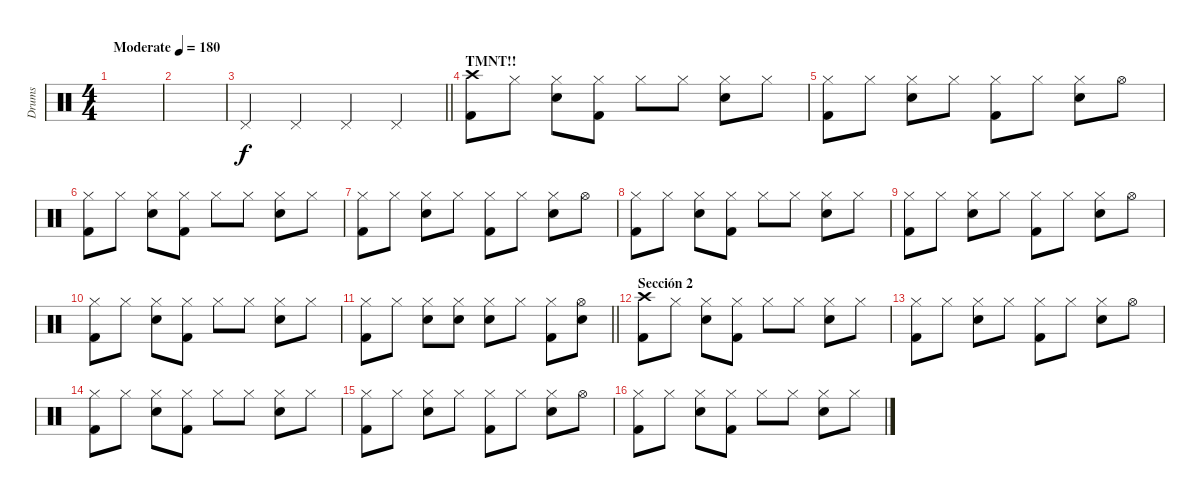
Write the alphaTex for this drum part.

\track ("Drums" "Drums") {instrument percussion}
\staff {score}
\articulation defaults
\ts (4 4)
\tempo (180 "Moderate")
\clef neutral
\ks c
|
|
\barLineRight lightlight "Pedal Hi-Hat (hit)".4 "Pedal Hi-Hat (hit)".4 "Pedal Hi-Hat (hit)".4 "Pedal Hi-Hat (hit)".4
|
\section ("" "TMNT!!")
("Crash high (hit)" "Kick (hit) 2").8 "Hi-Hat (closed)".8 ("Hi-Hat (closed)" "Snare (hit) 2").8 ("Hi-Hat (closed)" "Kick (hit) 2").8 "Hi-Hat (closed)".8 "Hi-Hat (closed)".8 ("Hi-Hat (closed)" "Snare (hit) 2").8 "Hi-Hat (closed)".8 |
("Hi-Hat (closed)" "Kick (hit) 2").8 "Hi-Hat (closed)".8 ("Hi-Hat (closed)" "Snare (hit) 2").8 "Hi-Hat (closed)".8 ("Hi-Hat (closed)" "Kick (hit) 2").8 "Hi-Hat (closed)".8 ("Hi-Hat (closed)" "Snare (hit) 2").8 "Hi-Hat (open)".8 |
("Hi-Hat (closed)" "Kick (hit) 2").8 "Hi-Hat (closed)".8 ("Hi-Hat (closed)" "Snare (hit) 2").8 ("Hi-Hat (closed)" "Kick (hit) 2").8 "Hi-Hat (closed)".8 "Hi-Hat (closed)".8 ("Hi-Hat (closed)" "Snare (hit) 2").8 "Hi-Hat (closed)".8 |
("Hi-Hat (closed)" "Kick (hit) 2").8 "Hi-Hat (closed)".8 ("Hi-Hat (closed)" "Snare (hit) 2").8 "Hi-Hat (closed)".8 ("Hi-Hat (closed)" "Kick (hit) 2").8 "Hi-Hat (closed)".8 ("Hi-Hat (closed)" "Snare (hit) 2").8 "Hi-Hat (open)".8 |
("Hi-Hat (closed)" "Kick (hit) 2").8 "Hi-Hat (closed)".8 ("Hi-Hat (closed)" "Snare (hit) 2").8 ("Hi-Hat (closed)" "Kick (hit) 2").8 "Hi-Hat (closed)".8 "Hi-Hat (closed)".8 ("Hi-Hat (closed)" "Snare (hit) 2").8 "Hi-Hat (closed)".8 |
("Hi-Hat (closed)" "Kick (hit) 2").8 "Hi-Hat (closed)".8 ("Hi-Hat (closed)" "Snare (hit) 2").8 "Hi-Hat (closed)".8 ("Hi-Hat (closed)" "Kick (hit) 2").8 "Hi-Hat (closed)".8 ("Hi-Hat (closed)" "Snare (hit) 2").8 "Hi-Hat (open)".8 |
("Hi-Hat (closed)" "Kick (hit) 2").8 "Hi-Hat (closed)".8 ("Hi-Hat (closed)" "Snare (hit) 2").8 ("Hi-Hat (closed)" "Kick (hit) 2").8 "Hi-Hat (closed)".8 "Hi-Hat (closed)".8 ("Hi-Hat (closed)" "Snare (hit) 2").8 "Hi-Hat (closed)".8 |
\barLineRight lightlight
("Hi-Hat (closed)" "Kick (hit) 2").8 "Hi-Hat (closed)".8 ("Hi-Hat (closed)" "Snare (hit) 2").8 ("Hi-Hat (closed)" "Snare (hit) 2").8 ("Hi-Hat (closed)" "Snare (hit) 2").8 "Hi-Hat (closed)".8 ("Hi-Hat (closed)" "Kick (hit) 2").8 ("Hi-Hat (open)" "Snare (hit) 2").8 |
\section ("" "Sección 2")
("Crash high (hit)" "Kick (hit) 2").8 "Hi-Hat (closed)".8 ("Hi-Hat (closed)" "Snare (hit) 2").8 ("Hi-Hat (closed)" "Kick (hit) 2").8 "Hi-Hat (closed)".8 "Hi-Hat (closed)".8 ("Hi-Hat (closed)" "Snare (hit) 2").8 "Hi-Hat (closed)".8 |
("Hi-Hat (closed)" "Kick (hit) 2").8 "Hi-Hat (closed)".8 ("Hi-Hat (closed)" "Snare (hit) 2").8 "Hi-Hat (closed)".8 ("Hi-Hat (closed)" "Kick (hit) 2").8 "Hi-Hat (closed)".8 ("Hi-Hat (closed)" "Snare (hit) 2").8 "Hi-Hat (open)".8 |
("Hi-Hat (closed)" "Kick (hit) 2").8 "Hi-Hat (closed)".8 ("Hi-Hat (closed)" "Snare (hit) 2").8 ("Hi-Hat (closed)" "Kick (hit) 2").8 "Hi-Hat (closed)".8 "Hi-Hat (closed)".8 ("Hi-Hat (closed)" "Snare (hit) 2").8 "Hi-Hat (closed)".8 |
("Hi-Hat (closed)" "Kick (hit) 2").8 "Hi-Hat (closed)".8 ("Hi-Hat (closed)" "Snare (hit) 2").8 "Hi-Hat (closed)".8 ("Hi-Hat (closed)" "Kick (hit) 2").8 "Hi-Hat (closed)".8 ("Hi-Hat (closed)" "Snare (hit) 2").8 "Hi-Hat (open)".8 |
("Hi-Hat (closed)" "Kick (hit) 2").8 "Hi-Hat (closed)".8 ("Hi-Hat (closed)" "Snare (hit) 2").8 ("Hi-Hat (closed)" "Kick (hit) 2").8 "Hi-Hat (closed)".8 "Hi-Hat (closed)".8 ("Hi-Hat (closed)" "Snare (hit) 2").8 "Hi-Hat (closed)".8
